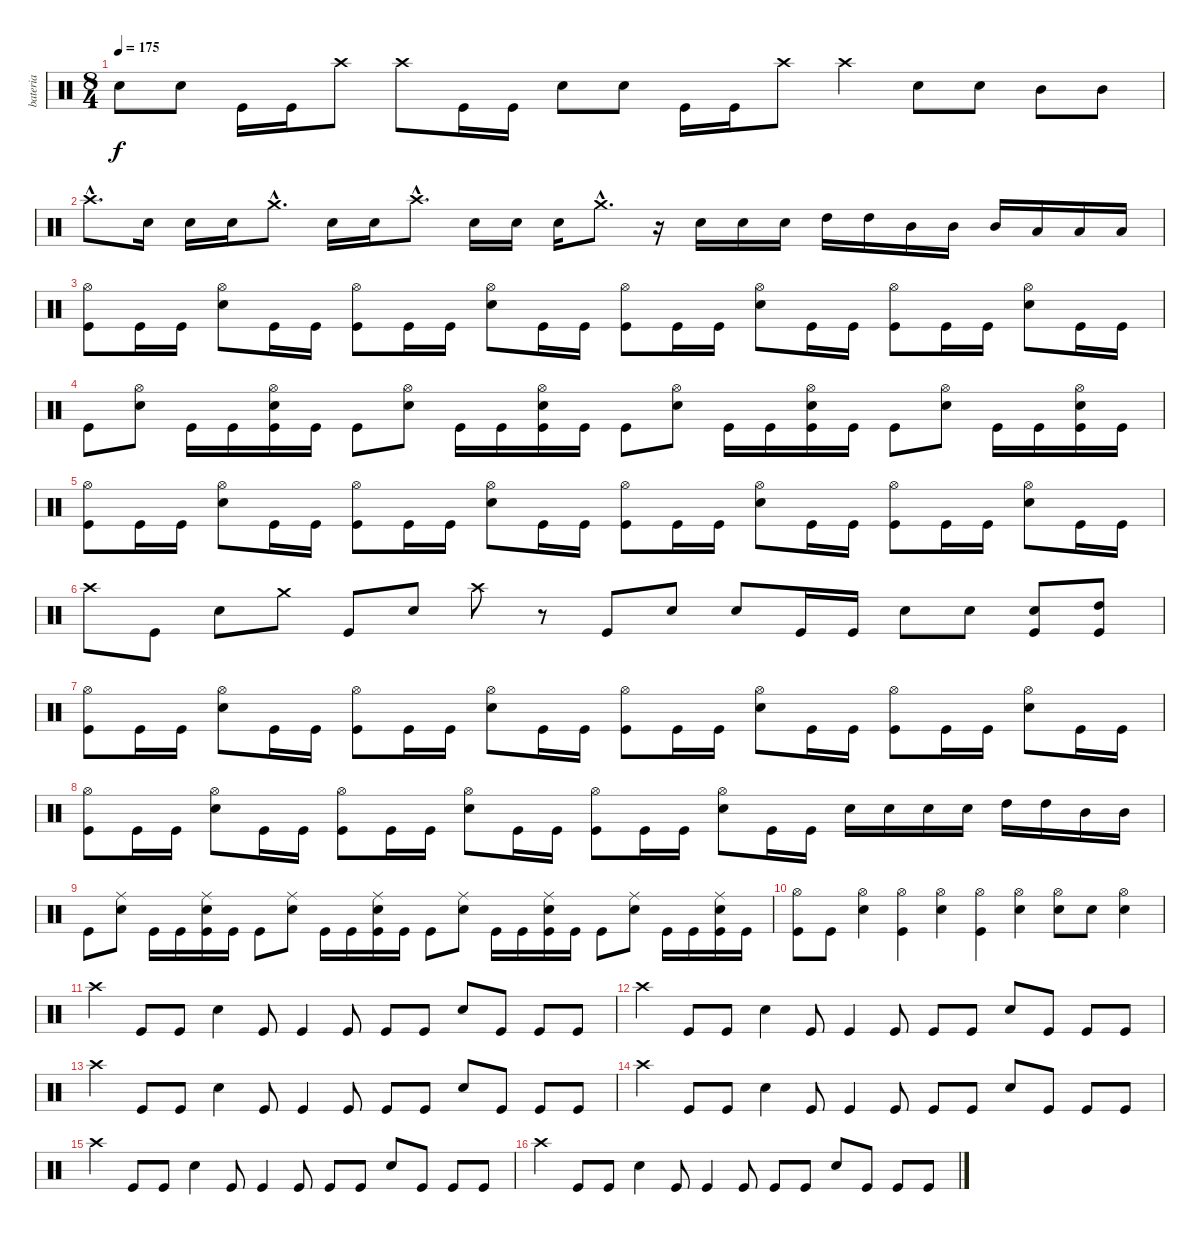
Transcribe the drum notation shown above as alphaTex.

\track ("bateria" "bateria") {instrument percussion}
\staff {score}
\articulation defaults
\ts (8 4)
\tempo 175
\clef neutral
\ks c "Snare (hit) 2".8{dy f} "Snare (hit) 2".8 "Kick (hit)".16 "Kick (hit)".16 "Crash high (hit)".8 "Crash high (hit)".8 "Kick (hit)".16 "Kick (hit)".16 "Snare (hit) 2".8 "Snare (hit) 2".8 "Kick (hit)".16 "Kick (hit)".16 "Crash high (hit)".8 "Crash high (hit)".4 "Snare (hit) 2".8 "Snare (hit) 2".8 "Mid Tom (hit)".8 "Mid Tom (hit)".8
|
"Crash high (hit)"{hac}.8{d} "Snare (hit) 2".16 "Snare (hit) 2".16 "Snare (hit) 2".16 "Crash medium (hit)"{hac}.8{d} "Snare (hit) 2".16 "Snare (hit) 2".16 "Crash high (hit)"{hac}.8{d} "Snare (hit) 2".16 "Snare (hit) 2".16 "Snare (hit) 2".16 "Crash medium (hit)"{hac}.8{d} r.16 "Snare (hit) 2".16 "Snare (hit) 2".16 "Snare (hit) 2".16 "High Tom (hit)".16 "High Tom (hit)".16 "Mid Tom (hit)".16 "Mid Tom (hit)".16 "Mid Tom (hit)".16 "Low Tom (hit)".16 "Low Tom (hit)".16 "Low Tom (hit)".16 |
("Kick (hit)" "Hi-Hat (open)").8 "Kick (hit)".16 "Kick (hit)".16 ("Snare (hit) 2" "Hi-Hat (open)").8 "Kick (hit)".16 "Kick (hit)".16 ("Kick (hit)" "Hi-Hat (open)").8 "Kick (hit)".16 "Kick (hit)".16 ("Snare (hit) 2" "Hi-Hat (open)").8 "Kick (hit)".16 "Kick (hit)".16 ("Kick (hit)" "Hi-Hat (open)").8 "Kick (hit)".16 "Kick (hit)".16 ("Snare (hit) 2" "Hi-Hat (open)").8 "Kick (hit)".16 "Kick (hit)".16 ("Kick (hit)" "Hi-Hat (open)").8 "Kick (hit)".16 "Kick (hit)".16 ("Snare (hit) 2" "Hi-Hat (open)").8 "Kick (hit)".16 "Kick (hit)".16 |
"Kick (hit)".8 ("Snare (hit) 2" "Hi-Hat (open)").8 "Kick (hit)".16 "Kick (hit)".16 ("Kick (hit)" "Snare (hit) 2" "Hi-Hat (open)").16 "Kick (hit)".16 "Kick (hit)".8 ("Snare (hit) 2" "Hi-Hat (open)").8 "Kick (hit)".16 "Kick (hit)".16 ("Kick (hit)" "Snare (hit) 2" "Hi-Hat (open)").16 "Kick (hit)".16 "Kick (hit)".8 ("Snare (hit) 2" "Hi-Hat (open)").8 "Kick (hit)".16 "Kick (hit)".16 ("Kick (hit)" "Snare (hit) 2" "Hi-Hat (open)").16 "Kick (hit)".16 "Kick (hit)".8 ("Snare (hit) 2" "Hi-Hat (open)").8 "Kick (hit)".16 "Kick (hit)".16 ("Kick (hit)" "Snare (hit) 2" "Hi-Hat (open)").16 "Kick (hit)".16 |
("Kick (hit)" "Hi-Hat (open)").8 "Kick (hit)".16 "Kick (hit)".16 ("Snare (hit) 2" "Hi-Hat (open)").8 "Kick (hit)".16 "Kick (hit)".16 ("Kick (hit)" "Hi-Hat (open)").8 "Kick (hit)".16 "Kick (hit)".16 ("Snare (hit) 2" "Hi-Hat (open)").8 "Kick (hit)".16 "Kick (hit)".16 ("Kick (hit)" "Hi-Hat (open)").8 "Kick (hit)".16 "Kick (hit)".16 ("Snare (hit) 2" "Hi-Hat (open)").8 "Kick (hit)".16 "Kick (hit)".16 ("Kick (hit)" "Hi-Hat (open)").8 "Kick (hit)".16 "Kick (hit)".16 ("Snare (hit) 2" "Hi-Hat (open)").8 "Kick (hit)".16 "Kick (hit)".16 |
"Crash high (hit)".8 "Kick (hit)".8 "Snare (hit) 2".8 "Crash medium (hit)".8 "Kick (hit)".8 "Snare (hit) 2".8 "Crash high (hit)".8 r.8 "Kick (hit)".8 "Snare (hit) 2".8 "Snare (hit) 2".8 "Kick (hit)".16 "Kick (hit)".16 "Snare (hit) 2".8 "Snare (hit) 2".8 ("Kick (hit)" "Snare (hit) 2").8 ("Kick (hit)" "High Tom (hit)").8 |
("Kick (hit)" "Hi-Hat (open)").8 "Kick (hit)".16 "Kick (hit)".16 ("Snare (hit) 2" "Hi-Hat (open)").8 "Kick (hit)".16 "Kick (hit)".16 ("Kick (hit)" "Hi-Hat (open)").8 "Kick (hit)".16 "Kick (hit)".16 ("Snare (hit) 2" "Hi-Hat (open)").8 "Kick (hit)".16 "Kick (hit)".16 ("Kick (hit)" "Hi-Hat (open)").8 "Kick (hit)".16 "Kick (hit)".16 ("Snare (hit) 2" "Hi-Hat (open)").8 "Kick (hit)".16 "Kick (hit)".16 ("Kick (hit)" "Hi-Hat (open)").8 "Kick (hit)".16 "Kick (hit)".16 ("Snare (hit) 2" "Hi-Hat (open)").8 "Kick (hit)".16 "Kick (hit)".16 |
("Kick (hit)" "Hi-Hat (open)").8 "Kick (hit)".16 "Kick (hit)".16 ("Snare (hit) 2" "Hi-Hat (open)").8 "Kick (hit)".16 "Kick (hit)".16 ("Kick (hit)" "Hi-Hat (open)").8 "Kick (hit)".16 "Kick (hit)".16 ("Snare (hit) 2" "Hi-Hat (open)").8 "Kick (hit)".16 "Kick (hit)".16 ("Kick (hit)" "Hi-Hat (open)").8 "Kick (hit)".16 "Kick (hit)".16 ("Snare (hit) 2" "Hi-Hat (open)").8 "Kick (hit)".16 "Kick (hit)".16 "Snare (hit) 2".16 "Snare (hit) 2".16 "Snare (hit) 2".16 "Snare (hit) 2".16 "High Tom (hit)".16 "High Tom (hit)".16 "Mid Tom (hit)".16 "Mid Tom (hit)".16 |
"Kick (hit)".8 ("Snare (hit) 2" "Ride (middle)").8 "Kick (hit)".16 "Kick (hit)".16 ("Kick (hit)" "Snare (hit) 2" "Ride (middle)").16 "Kick (hit)".16 "Kick (hit)".8 ("Snare (hit) 2" "Ride (middle)").8 "Kick (hit)".16 "Kick (hit)".16 ("Kick (hit)" "Snare (hit) 2" "Ride (middle)").16 "Kick (hit)".16 "Kick (hit)".8 ("Snare (hit) 2" "Ride (middle)").8 "Kick (hit)".16 "Kick (hit)".16 ("Kick (hit)" "Snare (hit) 2" "Ride (middle)").16 "Kick (hit)".16 "Kick (hit)".8 ("Snare (hit) 2" "Ride (middle)").8 "Kick (hit)".16 "Kick (hit)".16 ("Kick (hit)" "Snare (hit) 2" "Ride (middle)").16 "Kick (hit)".16 |
("Hi-Hat (open)" "Kick (hit)").8 "Kick (hit)".8 ("Hi-Hat (open)" "Snare (hit) 2").4 ("Hi-Hat (open)" "Kick (hit)").4 ("Hi-Hat (open)" "Snare (hit) 2").4 ("Hi-Hat (open)" "Kick (hit)").4 ("Hi-Hat (open)" "Snare (hit) 2").4 ("Hi-Hat (open)" "Snare (hit) 2").8 "Snare (hit) 2".8 ("Hi-Hat (open)" "Snare (hit) 2").4 |
"Crash high (hit)".4 "Kick (hit)".8 "Kick (hit)".8 "Snare (hit) 2".4 "Kick (hit)".8 "Kick (hit)".4 "Kick (hit)".8 "Kick (hit)".8 "Kick (hit)".8 "Snare (hit) 2".8 "Kick (hit)".8 "Kick (hit)".8 "Kick (hit)".8 |
"Crash high (hit)".4 "Kick (hit)".8 "Kick (hit)".8 "Snare (hit) 2".4 "Kick (hit)".8 "Kick (hit)".4 "Kick (hit)".8 "Kick (hit)".8 "Kick (hit)".8 "Snare (hit) 2".8 "Kick (hit)".8 "Kick (hit)".8 "Kick (hit)".8 |
"Crash high (hit)".4 "Kick (hit)".8 "Kick (hit)".8 "Snare (hit) 2".4 "Kick (hit)".8 "Kick (hit)".4 "Kick (hit)".8 "Kick (hit)".8 "Kick (hit)".8 "Snare (hit) 2".8 "Kick (hit)".8 "Kick (hit)".8 "Kick (hit)".8 |
"Crash high (hit)".4 "Kick (hit)".8 "Kick (hit)".8 "Snare (hit) 2".4 "Kick (hit)".8 "Kick (hit)".4 "Kick (hit)".8 "Kick (hit)".8 "Kick (hit)".8 "Snare (hit) 2".8 "Kick (hit)".8 "Kick (hit)".8 "Kick (hit)".8 |
"Crash high (hit)".4 "Kick (hit)".8 "Kick (hit)".8 "Snare (hit) 2".4 "Kick (hit)".8 "Kick (hit)".4 "Kick (hit)".8 "Kick (hit)".8 "Kick (hit)".8 "Snare (hit) 2".8 "Kick (hit)".8 "Kick (hit)".8 "Kick (hit)".8 |
"Crash high (hit)".4 "Kick (hit)".8 "Kick (hit)".8 "Snare (hit) 2".4 "Kick (hit)".8 "Kick (hit)".4 "Kick (hit)".8 "Kick (hit)".8 "Kick (hit)".8 "Snare (hit) 2".8 "Kick (hit)".8 "Kick (hit)".8 "Kick (hit)".8
